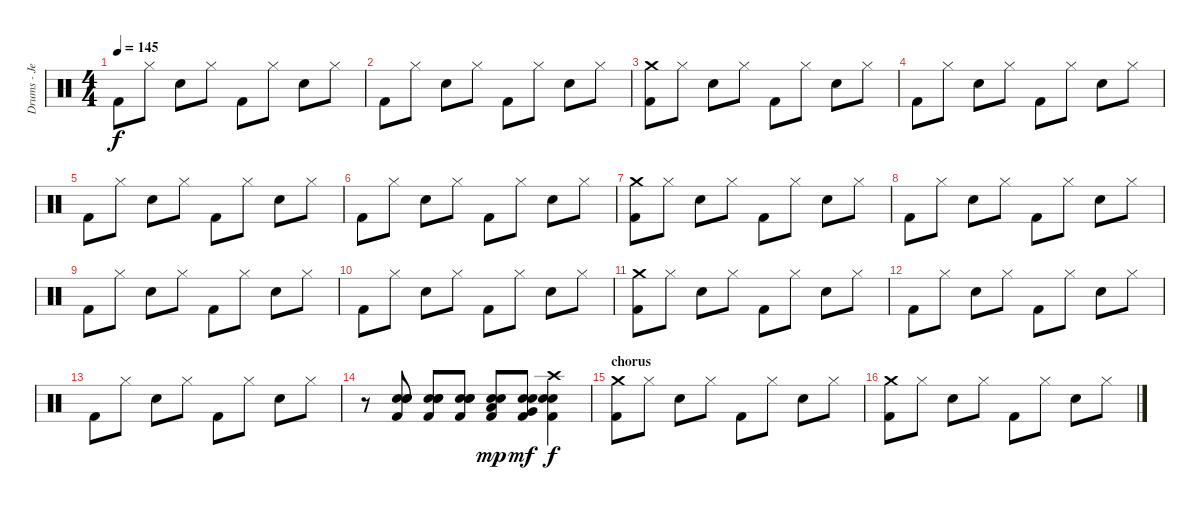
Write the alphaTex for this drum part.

\track ("Drums - Jeremiah Green" "Drums - Je") {instrument percussion}
\staff {score}
\articulation defaults
\ts (4 4)
\tempo 145
\clef neutral
\ks c "Kick (hit) 2".8{dy f} "Hi-Hat (closed)".8 "Electric Snare (hit)".8 "Hi-Hat (closed)".8 "Kick (hit) 2".8 "Hi-Hat (closed)".8 "Electric Snare (hit)".8 "Hi-Hat (closed)".8
|
"Kick (hit) 2".8 "Hi-Hat (closed)".8 "Electric Snare (hit)".8 "Hi-Hat (closed)".8 "Kick (hit) 2".8 "Hi-Hat (closed)".8 "Electric Snare (hit)".8 "Hi-Hat (closed)".8 |
("Crash medium (hit)" "Kick (hit) 2").8 "Hi-Hat (closed)".8 "Electric Snare (hit)".8 "Hi-Hat (closed)".8 "Kick (hit) 2".8 "Hi-Hat (closed)".8 "Electric Snare (hit)".8 "Hi-Hat (closed)".8 |
"Kick (hit) 2".8 "Hi-Hat (closed)".8 "Electric Snare (hit)".8 "Hi-Hat (closed)".8 "Kick (hit) 2".8 "Hi-Hat (closed)".8 "Electric Snare (hit)".8 "Hi-Hat (closed)".8 |
"Kick (hit) 2".8 "Hi-Hat (closed)".8 "Electric Snare (hit)".8 "Hi-Hat (closed)".8 "Kick (hit) 2".8 "Hi-Hat (closed)".8 "Electric Snare (hit)".8 "Hi-Hat (closed)".8 |
"Kick (hit) 2".8 "Hi-Hat (closed)".8 "Electric Snare (hit)".8 "Hi-Hat (closed)".8 "Kick (hit) 2".8 "Hi-Hat (closed)".8 "Electric Snare (hit)".8 "Hi-Hat (closed)".8 |
("Crash medium (hit)" "Kick (hit) 2").8 "Hi-Hat (closed)".8 "Electric Snare (hit)".8 "Hi-Hat (closed)".8 "Kick (hit) 2".8 "Hi-Hat (closed)".8 "Electric Snare (hit)".8 "Hi-Hat (closed)".8 |
"Kick (hit) 2".8 "Hi-Hat (closed)".8 "Electric Snare (hit)".8 "Hi-Hat (closed)".8 "Kick (hit) 2".8 "Hi-Hat (closed)".8 "Electric Snare (hit)".8 "Hi-Hat (closed)".8 |
"Kick (hit) 2".8 "Hi-Hat (closed)".8 "Electric Snare (hit)".8 "Hi-Hat (closed)".8 "Kick (hit) 2".8 "Hi-Hat (closed)".8 "Electric Snare (hit)".8 "Hi-Hat (closed)".8 |
"Kick (hit) 2".8 "Hi-Hat (closed)".8 "Electric Snare (hit)".8 "Hi-Hat (closed)".8 "Kick (hit) 2".8 "Hi-Hat (closed)".8 "Electric Snare (hit)".8 "Hi-Hat (closed)".8 |
("Crash medium (hit)" "Kick (hit) 2").8 "Hi-Hat (closed)".8 "Electric Snare (hit)".8 "Hi-Hat (closed)".8 "Kick (hit) 2".8 "Hi-Hat (closed)".8 "Electric Snare (hit)".8 "Hi-Hat (closed)".8 |
"Kick (hit) 2".8 "Hi-Hat (closed)".8 "Electric Snare (hit)".8 "Hi-Hat (closed)".8 "Kick (hit) 2".8 "Hi-Hat (closed)".8 "Electric Snare (hit)".8 "Hi-Hat (closed)".8 |
"Kick (hit) 2".8 "Hi-Hat (closed)".8 "Electric Snare (hit)".8 "Hi-Hat (closed)".8 "Kick (hit) 2".8 "Hi-Hat (closed)".8 "Electric Snare (hit)".8 "Hi-Hat (closed)".8 |
r.8 ("Snare (hit) 2" "Electric Snare (hit)" "Electric Snare (hit)" "Kick (hit) 2").8 ("Snare (hit) 2" "Electric Snare (hit)" "Electric Snare (hit)" "Kick (hit) 2").8 ("Snare (hit) 2" "Electric Snare (hit)" "Electric Snare (hit)" "Kick (hit) 2").8 ("Snare (hit) 2" "Low Tom (hit)" "Electric Snare (hit)" "Kick (hit) 2").8{dy mp} ("Snare (hit) 2" "Very Low Tom (hit)" "Electric Snare (hit)" "Kick (hit) 2").8{dy mf} ("Crash high (hit)" "Snare (hit) 2" "Electric Snare (hit)" "Kick (hit) 2").4{dy f} |
\section ("" "chorus")
("Crash medium (hit)" "Kick (hit) 2").8 "Hi-Hat (closed)".8 "Electric Snare (hit)".8 "Hi-Hat (closed)".8 "Kick (hit) 2".8 "Hi-Hat (closed)".8 "Electric Snare (hit)".8 "Hi-Hat (closed)".8 |
("Crash medium (hit)" "Kick (hit) 2").8 "Hi-Hat (closed)".8 "Electric Snare (hit)".8 "Hi-Hat (closed)".8 "Kick (hit) 2".8 "Hi-Hat (closed)".8 "Electric Snare (hit)".8 "Hi-Hat (closed)".8
